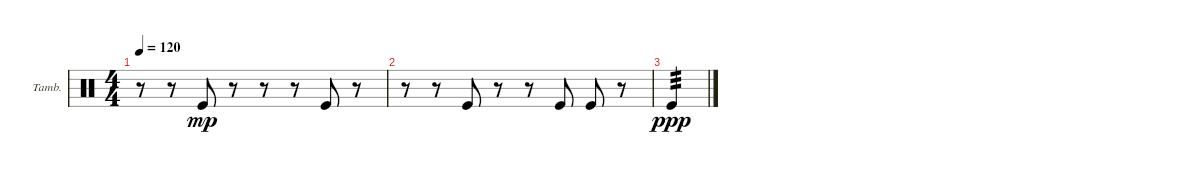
\defaultSystemsLayout 4
\bracketExtendMode groupsimilarinstruments
\firstSystemTrackNameOrientation horizontal
\otherSystemsTrackNameOrientation horizontal
\track ("Tambourine" "Tamb.") {instrument percussion}
\staff {score}
\articulation defaults
\ts (4 4)
\tempo 120
\clef neutral
\ks c
r.8{dy mp} r.8 "Kick (hit)".8 r.8 r.8 r.8 "Kick (hit)".8 r.8 |
r.8 r.8 "Kick (hit)".8 r.8 r.8 "Kick (hit)".8 "Kick (hit)".8 r.8 |
"Kick (hit)".4{tp 3 dy ppp}
